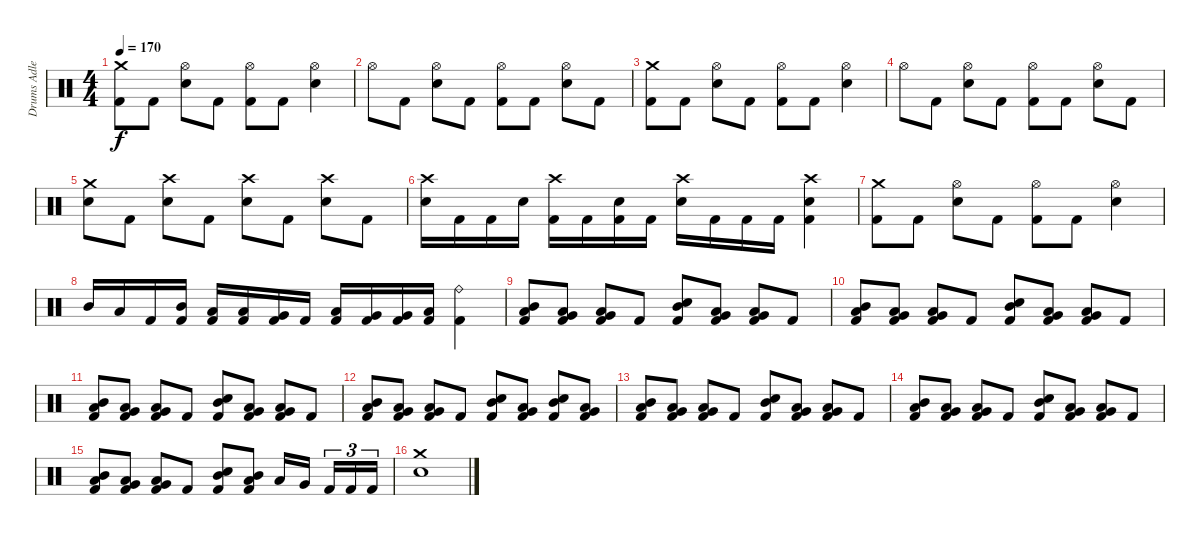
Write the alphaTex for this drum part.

\track ("Drums Adler" "Drums Adle") {instrument percussion}
\staff {score}
\articulation defaults
\ts (4 4)
\tempo 170
\clef neutral
\ks c
("Crash medium (hit)" "Kick (hit) 2").8{dy f} "Kick (hit) 2".8 ("Hi-Hat (open)" "Snare (hit) 2").8 "Kick (hit) 2".8 ("Hi-Hat (open)" "Kick (hit) 2").8 "Kick (hit) 2".8 ("Hi-Hat (open)" "Snare (hit) 2").4 |
"Hi-Hat (open)".8 "Kick (hit) 2".8 ("Hi-Hat (open)" "Snare (hit) 2").8 "Kick (hit) 2".8 ("Hi-Hat (open)" "Kick (hit) 2").8 "Kick (hit) 2".8 ("Hi-Hat (open)" "Snare (hit) 2").8 "Kick (hit) 2".8 |
("Crash medium (hit)" "Kick (hit) 2").8 "Kick (hit) 2".8 ("Hi-Hat (open)" "Snare (hit) 2").8 "Kick (hit) 2".8 ("Hi-Hat (open)" "Kick (hit) 2").8 "Kick (hit) 2".8 ("Hi-Hat (open)" "Snare (hit) 2").4 |
"Hi-Hat (open)".8 "Kick (hit) 2".8 ("Hi-Hat (open)" "Snare (hit) 2").8 "Kick (hit) 2".8 ("Hi-Hat (open)" "Kick (hit) 2").8 "Kick (hit) 2".8 ("Hi-Hat (open)" "Snare (hit) 2").8 "Kick (hit) 2".8 |
("Crash medium (hit)" "Snare (hit) 2").8 "Kick (hit) 2".8 ("Crash high (hit)" "Snare (hit) 2").8 "Kick (hit) 2".8 ("Crash high (hit)" "Snare (hit) 2").8 "Kick (hit) 2".8 ("Crash high (hit)" "Snare (hit) 2").8 "Kick (hit) 2".8 |
("Crash high (hit)" "Snare (hit) 2").16 "Kick (hit) 2".16 "Kick (hit) 2".16 "Snare (hit) 2".16 ("Crash high (hit)" "Kick (hit) 2").16 "Kick (hit) 2".16 ("Snare (hit) 2" "Kick (hit) 2").16 "Kick (hit) 2".16 ("Crash high (hit)" "Snare (hit) 2").16 "Kick (hit) 2".16 "Kick (hit) 2".16 "Kick (hit) 2".16 ("Crash high (hit)" "Snare (hit) 2" "Kick (hit) 2").4 |
("Crash medium (hit)" "Kick (hit) 2").8 "Kick (hit) 2".8 ("Hi-Hat (open)" "Snare (hit) 2").8 "Kick (hit) 2".8 ("Hi-Hat (open)" "Kick (hit) 2").8 "Kick (hit) 2".8 ("Hi-Hat (open)" "Snare (hit) 2").4 |
"Mid Tom (hit)".16 "Low Tom (hit)".16 "Kick (hit) 2".16 ("Mid Tom (hit)" "Kick (hit) 2").16 ("Low Tom (hit)" "Kick (hit) 2").16 ("Low Tom (hit)" "Kick (hit) 2").16 ("Very Low Tom (hit)" "Kick (hit) 2").16 "Kick (hit) 2".16 ("Low Tom (hit)" "Kick (hit) 2").16 ("Very Low Tom (hit)" "Kick (hit) 2").16 ("Very Low Tom (hit)" "Kick (hit) 2").16 ("Low Floor Tom (hit)" "Kick (hit) 2").16 ("Ride (bell)" "Kick (hit) 2").4 |
("Mid Tom (hit)" "Low Tom (hit)" "Kick (hit) 2").8 ("Low Tom (hit)" "Very Low Tom (hit)" "Kick (hit) 2").8 ("Low Floor Tom (hit)" "Very Low Tom (hit)" "Kick (hit) 2").8 "Kick (hit) 2".8 ("Mid Tom (hit)" "Snare (hit) 2" "Kick (hit) 2").8 ("Low Tom (hit)" "Very Low Tom (hit)" "Kick (hit) 2").8 ("Low Floor Tom (hit)" "Very Low Tom (hit)" "Kick (hit) 2").8 "Kick (hit) 2".8 |
("Mid Tom (hit)" "Low Tom (hit)" "Kick (hit) 2").8 ("Low Tom (hit)" "Very Low Tom (hit)" "Kick (hit) 2").8 ("Low Floor Tom (hit)" "Very Low Tom (hit)" "Kick (hit) 2").8 "Kick (hit) 2".8 ("Mid Tom (hit)" "Snare (hit) 2" "Kick (hit) 2").8 ("Low Tom (hit)" "Very Low Tom (hit)" "Kick (hit) 2").8 ("Low Floor Tom (hit)" "Very Low Tom (hit)" "Kick (hit) 2").8 "Kick (hit) 2".8 |
("Mid Tom (hit)" "Low Tom (hit)" "Kick (hit) 2").8 ("Low Tom (hit)" "Very Low Tom (hit)" "Kick (hit) 2").8 ("Low Floor Tom (hit)" "Very Low Tom (hit)" "Kick (hit) 2").8 "Kick (hit) 2".8 ("Mid Tom (hit)" "Snare (hit) 2" "Kick (hit) 2").8 ("Low Tom (hit)" "Very Low Tom (hit)" "Kick (hit) 2").8 ("Low Floor Tom (hit)" "Very Low Tom (hit)" "Kick (hit) 2").8 "Kick (hit) 2".8 |
("Mid Tom (hit)" "Low Tom (hit)" "Kick (hit) 2").8 ("Low Tom (hit)" "Very Low Tom (hit)" "Kick (hit) 2").8 ("Low Floor Tom (hit)" "Very Low Tom (hit)" "Kick (hit) 2").8 "Kick (hit) 2".8 ("Mid Tom (hit)" "Snare (hit) 2" "Kick (hit) 2").8 ("Low Tom (hit)" "Very Low Tom (hit)" "Kick (hit) 2").8 ("Mid Tom (hit)" "Snare (hit) 2" "Kick (hit) 2").8 ("Low Tom (hit)" "Very Low Tom (hit)" "Kick (hit) 2").8 |
("Mid Tom (hit)" "Low Tom (hit)" "Kick (hit) 2").8 ("Low Tom (hit)" "Very Low Tom (hit)" "Kick (hit) 2").8 ("Low Floor Tom (hit)" "Very Low Tom (hit)" "Kick (hit) 2").8 "Kick (hit) 2".8 ("Mid Tom (hit)" "Snare (hit) 2" "Kick (hit) 2").8 ("Low Tom (hit)" "Very Low Tom (hit)" "Kick (hit) 2").8 ("Low Floor Tom (hit)" "Very Low Tom (hit)" "Kick (hit) 2").8 "Kick (hit) 2".8 |
("Mid Tom (hit)" "Low Tom (hit)" "Kick (hit) 2").8 ("Low Tom (hit)" "Very Low Tom (hit)" "Kick (hit) 2").8 ("Low Floor Tom (hit)" "Very Low Tom (hit)" "Kick (hit) 2").8 "Kick (hit) 2".8 ("Mid Tom (hit)" "Snare (hit) 2" "Kick (hit) 2").8 ("Low Tom (hit)" "Very Low Tom (hit)" "Kick (hit) 2").8 ("Low Floor Tom (hit)" "Very Low Tom (hit)" "Kick (hit) 2").8 "Kick (hit) 2".8 |
("Mid Tom (hit)" "Low Tom (hit)" "Kick (hit) 2").8 ("Low Tom (hit)" "Very Low Tom (hit)" "Kick (hit) 2").8 ("Low Floor Tom (hit)" "Very Low Tom (hit)" "Kick (hit) 2").8 "Kick (hit) 2".8 ("Mid Tom (hit)" "Snare (hit) 2" "Kick (hit) 2").8 ("Low Tom (hit)" "Mid Tom (hit)" "Kick (hit) 2").8 "Low Tom (hit)".16 "Very Low Tom (hit)".16{beam splitsecondary} "Kick (hit) 2".16{tu (3 2)} "Kick (hit) 2".16{tu (3 2)} "Kick (hit) 2".16{tu (3 2)} |
("Crash medium (hit)" "Snare (hit) 2").1
